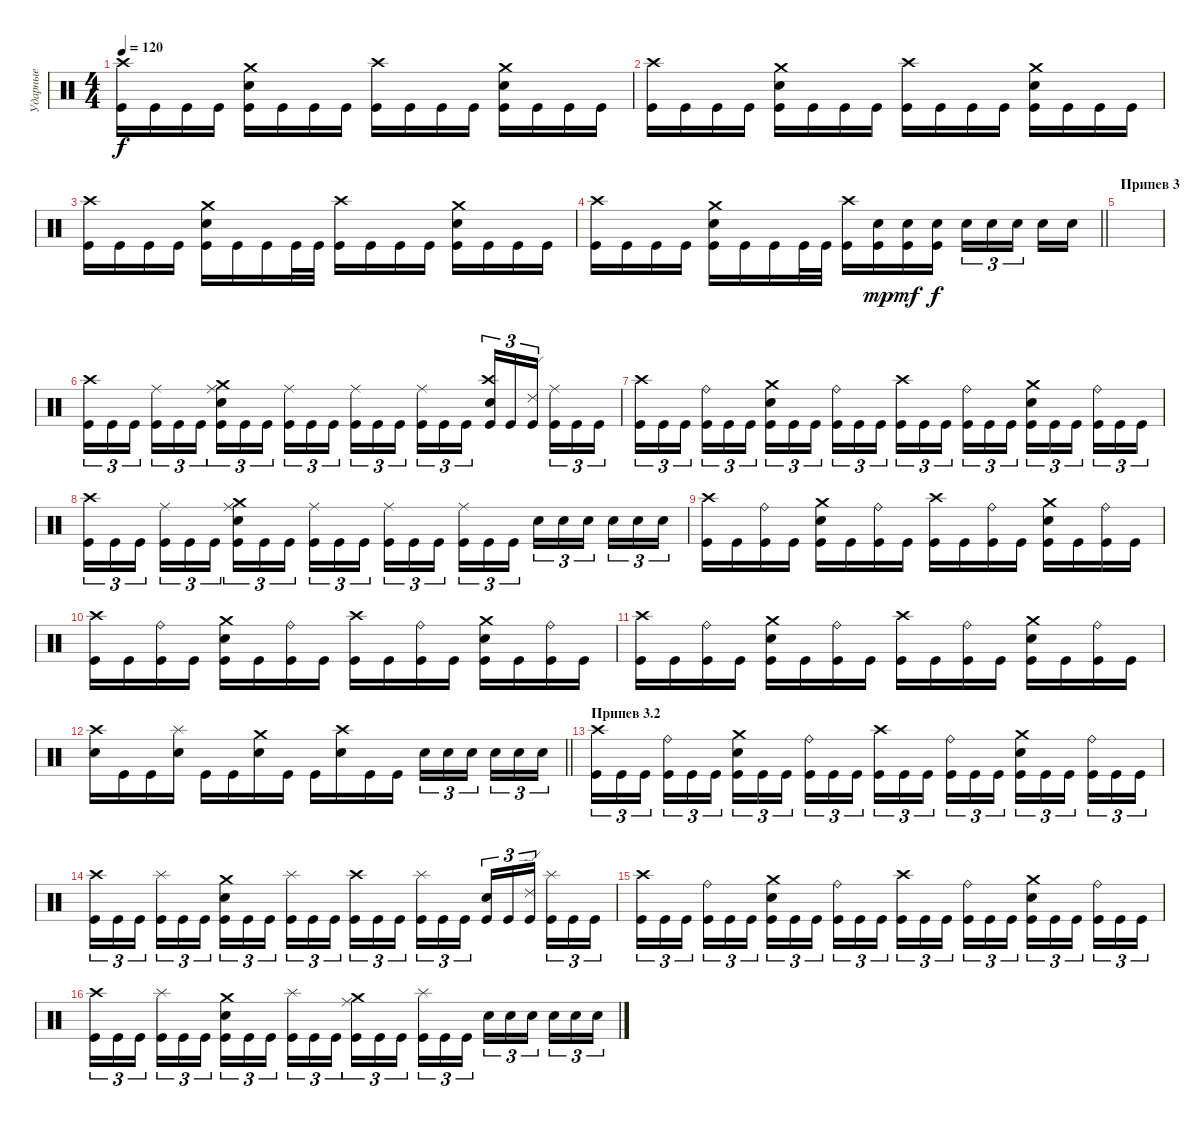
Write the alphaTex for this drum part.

\track ("Ударные" "Ударные") {instrument percussion}
\staff {score}
\articulation defaults
\ts (4 4)
\tempo 120
\clef neutral
\ks c
("Kick (hit)" "Crash high (hit)").16{dy f} "Kick (hit)".16 "Kick (hit)".16 "Kick (hit)".16 ("Kick (hit)" "Snare (hit) 2" "Crash medium (hit)").16 "Kick (hit)".16 "Kick (hit)".16 "Kick (hit)".16 ("Kick (hit)" "Crash high (hit)").16 "Kick (hit)".16 "Kick (hit)".16 "Kick (hit)".16 ("Kick (hit)" "Snare (hit) 2" "Crash medium (hit)").16 "Kick (hit)".16 "Kick (hit)".16 "Kick (hit)".16 |
("Kick (hit)" "Crash high (hit)").16 "Kick (hit)".16 "Kick (hit)".16 "Kick (hit)".16 ("Kick (hit)" "Snare (hit) 2" "Crash medium (hit)").16 "Kick (hit)".16 "Kick (hit)".16 "Kick (hit)".16 ("Kick (hit)" "Crash high (hit)").16 "Kick (hit)".16 "Kick (hit)".16 "Kick (hit)".16 ("Kick (hit)" "Snare (hit) 2" "Crash medium (hit)").16 "Kick (hit)".16 "Kick (hit)".16 "Kick (hit)".16 |
("Kick (hit)" "Crash high (hit)").16 "Kick (hit)".16 "Kick (hit)".16 "Kick (hit)".16 ("Kick (hit)" "Snare (hit) 2" "Crash medium (hit)").16 "Kick (hit)".16 "Kick (hit)".16 "Kick (hit)".32 "Kick (hit)".32 ("Kick (hit)" "Crash high (hit)").16 "Kick (hit)".16 "Kick (hit)".16 "Kick (hit)".16 ("Kick (hit)" "Snare (hit) 2" "Crash medium (hit)").16 "Kick (hit)".16 "Kick (hit)".16 "Kick (hit)".16 |
\barLineRight lightlight
("Kick (hit)" "Crash high (hit)").16 "Kick (hit)".16 "Kick (hit)".16 "Kick (hit)".16 ("Kick (hit)" "Snare (hit) 2" "Crash medium (hit)").16 "Kick (hit)".16 "Kick (hit)".16 "Kick (hit)".32 "Kick (hit)".32 ("Kick (hit)" "Crash high (hit)").16 ("Kick (hit)" "Snare (hit) 2").16{dy mp} ("Kick (hit)" "Snare (hit) 2").16{dy mf} ("Kick (hit)" "Snare (hit) 2").16{dy f} "Snare (hit) 2".16{tu (3 2)} "Snare (hit) 2".16{tu (3 2)} "Snare (hit) 2".16{tu (3 2)} "Snare (hit) 2".16 "Snare (hit) 2".16 |
\section ("" "Припев 3")
|
("Kick (hit)" "Crash high (hit)").16{tu (3 2)} "Kick (hit)".16{tu (3 2)} "Kick (hit)".16{tu (3 2)} ("Kick (hit)" "Ride (middle)").16{tu (3 2)} "Kick (hit)".16{tu (3 2)} "Kick (hit)".16{tu (3 2)} ("Kick (hit)" "Snare (hit) 2" "Ride (middle)" "Crash medium (hit)").16{tu (3 2)} "Kick (hit)".16{tu (3 2)} "Kick (hit)".16{tu (3 2)} ("Kick (hit)" "Ride (middle)").16{tu (3 2)} "Kick (hit)".16{tu (3 2)} "Kick (hit)".16{tu (3 2)} ("Kick (hit)" "Ride (middle)").16{tu (3 2)} "Kick (hit)".16{tu (3 2)} "Kick (hit)".16{tu (3 2)} ("Kick (hit)" "Ride (middle)").16{tu (3 2)} "Kick (hit)".16{tu (3 2)} "Kick (hit)".16{tu (3 2)} ("Kick (hit)" "Snare (hit) 2" "Crash high (hit)").16{tu (3 2)} "Kick (hit)".16{tu (3 2)} ("Kick (hit)" "Ride (edge) 2").16{tu (3 2)} ("Kick (hit)" "Ride (middle)").16{tu (3 2)} "Kick (hit)".16{tu (3 2)} "Kick (hit)".16{tu (3 2)} |
("Kick (hit)" "Crash high (hit)").16{tu (3 2)} "Kick (hit)".16{tu (3 2)} "Kick (hit)".16{tu (3 2)} ("Kick (hit)" "Ride (bell)").16{tu (3 2)} "Kick (hit)".16{tu (3 2)} "Kick (hit)".16{tu (3 2)} ("Kick (hit)" "Snare (hit) 2" "Crash medium (hit)").16{tu (3 2)} "Kick (hit)".16{tu (3 2)} "Kick (hit)".16{tu (3 2)} ("Kick (hit)" "Ride (bell)").16{tu (3 2)} "Kick (hit)".16{tu (3 2)} "Kick (hit)".16{tu (3 2)} ("Kick (hit)" "Crash high (hit)").16{tu (3 2)} "Kick (hit)".16{tu (3 2)} "Kick (hit)".16{tu (3 2)} ("Kick (hit)" "Ride (bell)").16{tu (3 2)} "Kick (hit)".16{tu (3 2)} "Kick (hit)".16{tu (3 2)} ("Kick (hit)" "Snare (hit) 2" "Crash medium (hit)").16{tu (3 2)} "Kick (hit)".16{tu (3 2)} "Kick (hit)".16{tu (3 2)} ("Kick (hit)" "Ride (bell)").16{tu (3 2)} "Kick (hit)".16{tu (3 2)} "Kick (hit)".16{tu (3 2)} |
("Kick (hit)" "Crash high (hit)").16{tu (3 2)} "Kick (hit)".16{tu (3 2)} "Kick (hit)".16{tu (3 2)} ("Kick (hit)" "Ride (middle)").16{tu (3 2)} "Kick (hit)".16{tu (3 2)} "Kick (hit)".16{tu (3 2)} ("Kick (hit)" "Snare (hit) 2" "Ride (middle)" "Crash medium (hit)").16{tu (3 2)} "Kick (hit)".16{tu (3 2)} "Kick (hit)".16{tu (3 2)} ("Kick (hit)" "Ride (middle)").16{tu (3 2)} "Kick (hit)".16{tu (3 2)} "Kick (hit)".16{tu (3 2)} ("Kick (hit)" "Ride (middle)").16{tu (3 2)} "Kick (hit)".16{tu (3 2)} "Kick (hit)".16{tu (3 2)} ("Kick (hit)" "Ride (middle)").16{tu (3 2)} "Kick (hit)".16{tu (3 2)} "Kick (hit)".16{tu (3 2)} "Snare (hit) 2".16{tu (3 2)} "Snare (hit) 2".16{tu (3 2)} "Snare (hit) 2".16{tu (3 2)} "Snare (hit) 2".16{tu (3 2)} "Snare (hit) 2".16{tu (3 2)} "Snare (hit) 2".16{tu (3 2)} |
("Kick (hit)" "Crash high (hit)").16 "Kick (hit)".16 ("Kick (hit)" "Ride (bell)").16 "Kick (hit)".16 ("Kick (hit)" "Snare (hit) 2" "Crash medium (hit)").16 "Kick (hit)".16 ("Kick (hit)" "Ride (bell)").16 "Kick (hit)".16 ("Kick (hit)" "Crash high (hit)").16 "Kick (hit)".16 ("Kick (hit)" "Ride (bell)").16 "Kick (hit)".16 ("Kick (hit)" "Snare (hit) 2" "Crash medium (hit)").16 "Kick (hit)".16 ("Kick (hit)" "Ride (bell)").16 "Kick (hit)".16 |
("Kick (hit)" "Crash high (hit)").16 "Kick (hit)".16 ("Kick (hit)" "Ride (bell)").16 "Kick (hit)".16 ("Kick (hit)" "Snare (hit) 2" "Crash medium (hit)").16 "Kick (hit)".16 ("Kick (hit)" "Ride (bell)").16 "Kick (hit)".16 ("Kick (hit)" "Crash high (hit)").16 "Kick (hit)".16 ("Kick (hit)" "Ride (bell)").16 "Kick (hit)".16 ("Kick (hit)" "Snare (hit) 2" "Crash medium (hit)").16 "Kick (hit)".16 ("Kick (hit)" "Ride (bell)").16 "Kick (hit)".16 |
("Kick (hit)" "Crash high (hit)").16 "Kick (hit)".16 ("Kick (hit)" "Ride (bell)").16 "Kick (hit)".16 ("Kick (hit)" "Snare (hit) 2" "Crash medium (hit)").16 "Kick (hit)".16 ("Kick (hit)" "Ride (bell)").16 "Kick (hit)".16 ("Kick (hit)" "Crash high (hit)").16 "Kick (hit)".16 ("Kick (hit)" "Ride (bell)").16 "Kick (hit)".16 ("Kick (hit)" "Snare (hit) 2" "Crash medium (hit)").16 "Kick (hit)".16 ("Kick (hit)" "Ride (bell)").16 "Kick (hit)".16 |
\barLineRight lightlight
("Snare (hit) 2" "Crash high (hit)").16 "Kick (hit)".16 "Kick (hit)".16 ("Snare (hit) 2" "Splash (hit)").16 "Kick (hit)".16 "Kick (hit)".16 ("Snare (hit) 2" "Crash medium (hit)").16 "Kick (hit)".16 "Kick (hit)".16 ("Snare (hit) 2" "Crash high (hit)").16 "Kick (hit)".16 "Kick (hit)".16 "Snare (hit) 2".16{tu (3 2)} "Snare (hit) 2".16{tu (3 2)} "Snare (hit) 2".16{tu (3 2)} "Snare (hit) 2".16{tu (3 2)} "Snare (hit) 2".16{tu (3 2)} "Snare (hit) 2".16{tu (3 2)} |
\section ("" "Припев 3.2")
("Kick (hit)" "Crash high (hit)").16{tu (3 2)} "Kick (hit)".16{tu (3 2)} "Kick (hit)".16{tu (3 2)} ("Kick (hit)" "Ride (bell)").16{tu (3 2)} "Kick (hit)".16{tu (3 2)} "Kick (hit)".16{tu (3 2)} ("Kick (hit)" "Snare (hit) 2" "Crash medium (hit)").16{tu (3 2)} "Kick (hit)".16{tu (3 2)} "Kick (hit)".16{tu (3 2)} ("Kick (hit)" "Ride (bell)").16{tu (3 2)} "Kick (hit)".16{tu (3 2)} "Kick (hit)".16{tu (3 2)} ("Kick (hit)" "Crash high (hit)").16{tu (3 2)} "Kick (hit)".16{tu (3 2)} "Kick (hit)".16{tu (3 2)} ("Kick (hit)" "Ride (bell)").16{tu (3 2)} "Kick (hit)".16{tu (3 2)} "Kick (hit)".16{tu (3 2)} ("Kick (hit)" "Snare (hit) 2" "Crash medium (hit)").16{tu (3 2)} "Kick (hit)".16{tu (3 2)} "Kick (hit)".16{tu (3 2)} ("Kick (hit)" "Ride (bell)").16{tu (3 2)} "Kick (hit)".16{tu (3 2)} "Kick (hit)".16{tu (3 2)} |
("Kick (hit)" "Crash high (hit)").16{tu (3 2)} "Kick (hit)".16{tu (3 2)} "Kick (hit)".16{tu (3 2)} ("Kick (hit)" "Splash (hit)").16{tu (3 2)} "Kick (hit)".16{tu (3 2)} "Kick (hit)".16{tu (3 2)} ("Kick (hit)" "Snare (hit) 2" "Crash medium (hit)").16{tu (3 2)} "Kick (hit)".16{tu (3 2)} "Kick (hit)".16{tu (3 2)} ("Kick (hit)" "Splash (hit)").16{tu (3 2)} "Kick (hit)".16{tu (3 2)} "Kick (hit)".16{tu (3 2)} ("Kick (hit)" "Crash high (hit)").16{tu (3 2)} "Kick (hit)".16{tu (3 2)} "Kick (hit)".16{tu (3 2)} ("Kick (hit)" "Splash (hit)").16{tu (3 2)} "Kick (hit)".16{tu (3 2)} "Kick (hit)".16{tu (3 2)} ("Kick (hit)" "Snare (hit) 2").16{tu (3 2)} "Kick (hit)".16{tu (3 2)} ("Kick (hit)" "Ride (edge) 2").16{tu (3 2)} ("Kick (hit)" "Splash (hit)").16{tu (3 2)} "Kick (hit)".16{tu (3 2)} "Kick (hit)".16{tu (3 2)} |
("Kick (hit)" "Crash high (hit)").16{tu (3 2)} "Kick (hit)".16{tu (3 2)} "Kick (hit)".16{tu (3 2)} ("Kick (hit)" "Ride (bell)").16{tu (3 2)} "Kick (hit)".16{tu (3 2)} "Kick (hit)".16{tu (3 2)} ("Kick (hit)" "Snare (hit) 2" "Crash medium (hit)").16{tu (3 2)} "Kick (hit)".16{tu (3 2)} "Kick (hit)".16{tu (3 2)} ("Kick (hit)" "Ride (bell)").16{tu (3 2)} "Kick (hit)".16{tu (3 2)} "Kick (hit)".16{tu (3 2)} ("Kick (hit)" "Crash high (hit)").16{tu (3 2)} "Kick (hit)".16{tu (3 2)} "Kick (hit)".16{tu (3 2)} ("Kick (hit)" "Ride (bell)").16{tu (3 2)} "Kick (hit)".16{tu (3 2)} "Kick (hit)".16{tu (3 2)} ("Kick (hit)" "Snare (hit) 2" "Crash medium (hit)").16{tu (3 2)} "Kick (hit)".16{tu (3 2)} "Kick (hit)".16{tu (3 2)} ("Kick (hit)" "Ride (bell)").16{tu (3 2)} "Kick (hit)".16{tu (3 2)} "Kick (hit)".16{tu (3 2)} |
("Kick (hit)" "Crash high (hit)").16{tu (3 2)} "Kick (hit)".16{tu (3 2)} "Kick (hit)".16{tu (3 2)} ("Kick (hit)" "Splash (hit)").16{tu (3 2)} "Kick (hit)".16{tu (3 2)} "Kick (hit)".16{tu (3 2)} ("Kick (hit)" "Snare (hit) 2" "Crash medium (hit)").16{tu (3 2)} "Kick (hit)".16{tu (3 2)} "Kick (hit)".16{tu (3 2)} ("Kick (hit)" "Splash (hit)").16{tu (3 2)} "Kick (hit)".16{tu (3 2)} "Kick (hit)".16{tu (3 2)} ("Kick (hit)" "Crash medium (hit)" "Ride (middle)").16{tu (3 2)} "Kick (hit)".16{tu (3 2)} "Kick (hit)".16{tu (3 2)} ("Kick (hit)" "Splash (hit)").16{tu (3 2)} "Kick (hit)".16{tu (3 2)} "Kick (hit)".16{tu (3 2)} "Snare (hit) 2".16{tu (3 2)} "Snare (hit) 2".16{tu (3 2)} "Snare (hit) 2".16{tu (3 2)} "Snare (hit) 2".16{tu (3 2)} "Snare (hit) 2".16{tu (3 2)} "Snare (hit) 2".16{tu (3 2)}
